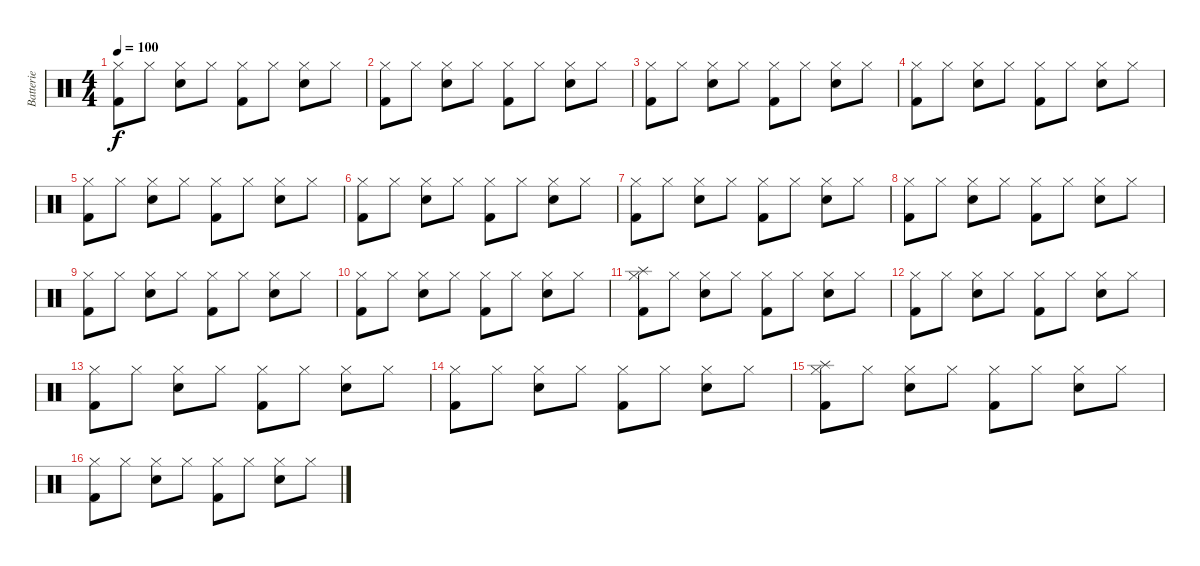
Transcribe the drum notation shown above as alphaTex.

\track ("Batterie" "Batterie") {instrument percussion}
\staff {score}
\articulation defaults
\ts (4 4)
\tempo 100
\clef neutral
\ks c
("Hi-Hat (closed)" "Kick (hit) 2").8{dy f} "Hi-Hat (closed)".8 ("Hi-Hat (closed)" "Snare (hit) 2").8 "Hi-Hat (closed)".8 ("Hi-Hat (closed)" "Kick (hit) 2").8 "Hi-Hat (closed)".8 ("Hi-Hat (closed)" "Snare (hit) 2").8 "Hi-Hat (closed)".8 |
("Hi-Hat (closed)" "Kick (hit) 2").8 "Hi-Hat (closed)".8 ("Hi-Hat (closed)" "Snare (hit) 2").8 "Hi-Hat (closed)".8 ("Hi-Hat (closed)" "Kick (hit) 2").8 "Hi-Hat (closed)".8 ("Hi-Hat (closed)" "Snare (hit) 2").8 "Hi-Hat (closed)".8 |
("Hi-Hat (closed)" "Kick (hit) 2").8 "Hi-Hat (closed)".8 ("Hi-Hat (closed)" "Snare (hit) 2").8 "Hi-Hat (closed)".8 ("Hi-Hat (closed)" "Kick (hit) 2").8 "Hi-Hat (closed)".8 ("Hi-Hat (closed)" "Snare (hit) 2").8 "Hi-Hat (closed)".8 |
("Hi-Hat (closed)" "Kick (hit) 2").8 "Hi-Hat (closed)".8 ("Hi-Hat (closed)" "Snare (hit) 2").8 "Hi-Hat (closed)".8 ("Hi-Hat (closed)" "Kick (hit) 2").8 "Hi-Hat (closed)".8 ("Hi-Hat (closed)" "Snare (hit) 2").8 "Hi-Hat (closed)".8 |
("Hi-Hat (closed)" "Kick (hit) 2").8 "Hi-Hat (closed)".8 ("Hi-Hat (closed)" "Snare (hit) 2").8 "Hi-Hat (closed)".8 ("Hi-Hat (closed)" "Kick (hit) 2").8 "Hi-Hat (closed)".8 ("Hi-Hat (closed)" "Snare (hit) 2").8 "Hi-Hat (closed)".8 |
("Hi-Hat (closed)" "Kick (hit) 2").8 "Hi-Hat (closed)".8 ("Hi-Hat (closed)" "Snare (hit) 2").8 "Hi-Hat (closed)".8 ("Hi-Hat (closed)" "Kick (hit) 2").8 "Hi-Hat (closed)".8 ("Hi-Hat (closed)" "Snare (hit) 2").8 "Hi-Hat (closed)".8 |
("Hi-Hat (closed)" "Kick (hit) 2").8 "Hi-Hat (closed)".8 ("Hi-Hat (closed)" "Snare (hit) 2").8 "Hi-Hat (closed)".8 ("Hi-Hat (closed)" "Kick (hit) 2").8 "Hi-Hat (closed)".8 ("Hi-Hat (closed)" "Snare (hit) 2").8 "Hi-Hat (closed)".8 |
("Hi-Hat (closed)" "Kick (hit) 2").8 "Hi-Hat (closed)".8 ("Hi-Hat (closed)" "Snare (hit) 2").8 "Hi-Hat (closed)".8 ("Hi-Hat (closed)" "Kick (hit) 2").8 "Hi-Hat (closed)".8 ("Hi-Hat (closed)" "Snare (hit) 2").8 "Hi-Hat (closed)".8 |
("Hi-Hat (closed)" "Kick (hit) 2").8 "Hi-Hat (closed)".8 ("Hi-Hat (closed)" "Snare (hit) 2").8 "Hi-Hat (closed)".8 ("Hi-Hat (closed)" "Kick (hit) 2").8 "Hi-Hat (closed)".8 ("Hi-Hat (closed)" "Snare (hit) 2").8 "Hi-Hat (closed)".8 |
("Hi-Hat (closed)" "Kick (hit) 2").8 "Hi-Hat (closed)".8 ("Hi-Hat (closed)" "Snare (hit) 2").8 "Hi-Hat (closed)".8 ("Hi-Hat (closed)" "Kick (hit) 2").8 "Hi-Hat (closed)".8 ("Hi-Hat (closed)" "Snare (hit) 2").8 "Hi-Hat (closed)".8 |
("Splash (hit)" "Hi-Hat (closed)" "Kick (hit) 2").8 "Hi-Hat (closed)".8 ("Hi-Hat (closed)" "Snare (hit) 2").8 "Hi-Hat (closed)".8 ("Hi-Hat (closed)" "Kick (hit) 2").8 "Hi-Hat (closed)".8 ("Hi-Hat (closed)" "Snare (hit) 2").8 "Hi-Hat (closed)".8 |
("Hi-Hat (closed)" "Kick (hit) 2").8 "Hi-Hat (closed)".8 ("Hi-Hat (closed)" "Snare (hit) 2").8 "Hi-Hat (closed)".8 ("Hi-Hat (closed)" "Kick (hit) 2").8 "Hi-Hat (closed)".8 ("Hi-Hat (closed)" "Snare (hit) 2").8 "Hi-Hat (closed)".8 |
("Hi-Hat (closed)" "Kick (hit) 2").8 "Hi-Hat (closed)".8 ("Hi-Hat (closed)" "Snare (hit) 2").8 "Hi-Hat (closed)".8 ("Hi-Hat (closed)" "Kick (hit) 2").8 "Hi-Hat (closed)".8 ("Hi-Hat (closed)" "Snare (hit) 2").8 "Hi-Hat (closed)".8 |
("Hi-Hat (closed)" "Kick (hit) 2").8 "Hi-Hat (closed)".8 ("Hi-Hat (closed)" "Snare (hit) 2").8 "Hi-Hat (closed)".8 ("Hi-Hat (closed)" "Kick (hit) 2").8 "Hi-Hat (closed)".8 ("Hi-Hat (closed)" "Snare (hit) 2").8 "Hi-Hat (closed)".8 |
("Splash (hit)" "Hi-Hat (closed)" "Kick (hit) 2").8 "Hi-Hat (closed)".8 ("Hi-Hat (closed)" "Snare (hit) 2").8 "Hi-Hat (closed)".8 ("Hi-Hat (closed)" "Kick (hit) 2").8 "Hi-Hat (closed)".8 ("Hi-Hat (closed)" "Snare (hit) 2").8 "Hi-Hat (closed)".8 |
("Hi-Hat (closed)" "Kick (hit) 2").8 "Hi-Hat (closed)".8 ("Hi-Hat (closed)" "Snare (hit) 2").8 "Hi-Hat (closed)".8 ("Hi-Hat (closed)" "Kick (hit) 2").8 "Hi-Hat (closed)".8 ("Hi-Hat (closed)" "Snare (hit) 2").8 "Hi-Hat (closed)".8
